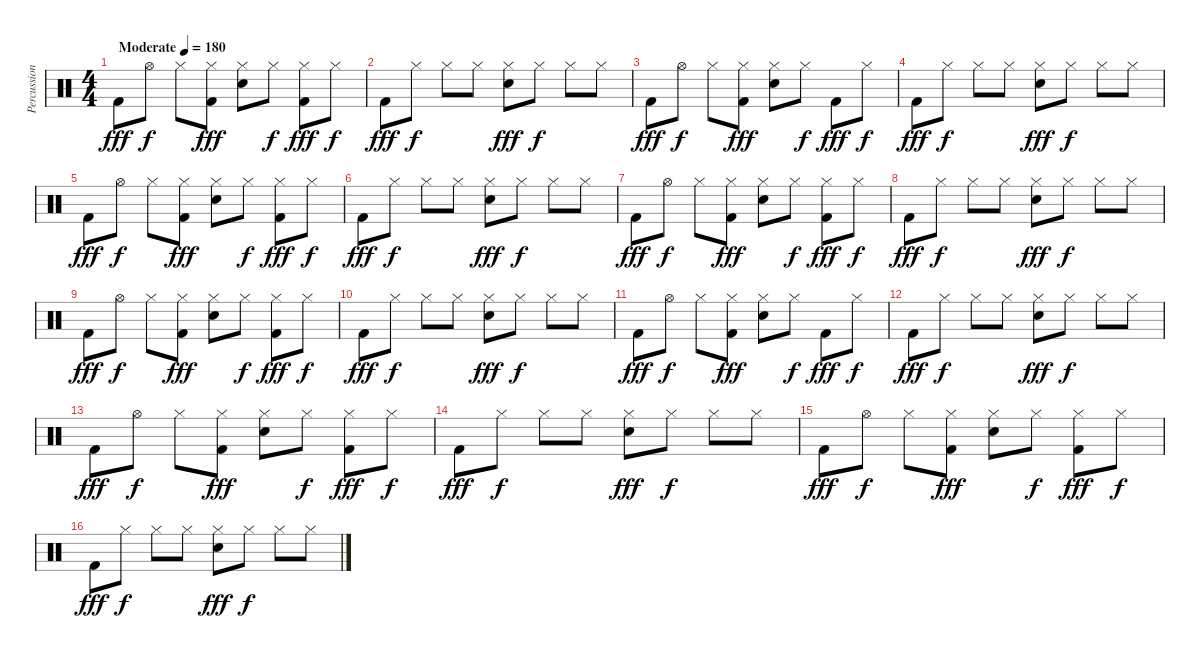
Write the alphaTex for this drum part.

\track ("Percussion" "Percussion") {instrument percussion}
\staff {score}
\articulation defaults
\ts (4 4)
\tempo (180 "Moderate")
\clef neutral
\ks c "Kick (hit) 2".8{dy fff} "Hi-Hat (open)".8{dy f} "Hi-Hat (closed)".8
("Kick (hit) 2" "Hi-Hat (closed)").8{dy fff} ("Snare (hit) 2" "Hi-Hat (closed)").8 "Hi-Hat (closed)".8{dy f} ("Kick (hit) 2" "Hi-Hat (closed)").8{dy fff} "Hi-Hat (closed)".8{dy f} |
"Kick (hit) 2".8{dy fff} "Hi-Hat (closed)".8{dy f} "Hi-Hat (closed)".8 "Hi-Hat (closed)".8 ("Snare (hit) 2" "Hi-Hat (closed)").8{dy fff} "Hi-Hat (closed)".8{dy f} "Hi-Hat (closed)".8 "Hi-Hat (closed)".8 |
"Kick (hit) 2".8{dy fff} "Hi-Hat (open)".8{dy f} "Hi-Hat (closed)".8 ("Kick (hit) 2" "Hi-Hat (closed)").8{dy fff} ("Snare (hit) 2" "Hi-Hat (closed)").8 "Hi-Hat (closed)".8{dy f} "Kick (hit) 2".8{dy fff} "Hi-Hat (closed)".8{dy f} |
"Kick (hit) 2".8{dy fff} "Hi-Hat (closed)".8{dy f} "Hi-Hat (closed)".8 "Hi-Hat (closed)".8 ("Snare (hit) 2" "Hi-Hat (closed)").8{dy fff} "Hi-Hat (closed)".8{dy f} "Hi-Hat (closed)".8 "Hi-Hat (closed)".8 |
"Kick (hit) 2".8{dy fff} "Hi-Hat (open)".8{dy f} "Hi-Hat (closed)".8 ("Kick (hit) 2" "Hi-Hat (closed)").8{dy fff} ("Snare (hit) 2" "Hi-Hat (closed)").8 "Hi-Hat (closed)".8{dy f} ("Kick (hit) 2" "Hi-Hat (closed)").8{dy fff} "Hi-Hat (closed)".8{dy f} |
"Kick (hit) 2".8{dy fff} "Hi-Hat (closed)".8{dy f} "Hi-Hat (closed)".8 "Hi-Hat (closed)".8 ("Snare (hit) 2" "Hi-Hat (closed)").8{dy fff} "Hi-Hat (closed)".8{dy f} "Hi-Hat (closed)".8 "Hi-Hat (closed)".8 |
"Kick (hit) 2".8{dy fff} "Hi-Hat (open)".8{dy f} "Hi-Hat (closed)".8 ("Kick (hit) 2" "Hi-Hat (closed)").8{dy fff} ("Snare (hit) 2" "Hi-Hat (closed)").8 "Hi-Hat (closed)".8{dy f} ("Kick (hit) 2" "Hi-Hat (closed)").8{dy fff} "Hi-Hat (closed)".8{dy f} |
"Kick (hit) 2".8{dy fff} "Hi-Hat (closed)".8{dy f} "Hi-Hat (closed)".8 "Hi-Hat (closed)".8 ("Snare (hit) 2" "Hi-Hat (closed)").8{dy fff} "Hi-Hat (closed)".8{dy f} "Hi-Hat (closed)".8 "Hi-Hat (closed)".8 |
"Kick (hit) 2".8{dy fff} "Hi-Hat (open)".8{dy f} "Hi-Hat (closed)".8 ("Kick (hit) 2" "Hi-Hat (closed)").8{dy fff} ("Snare (hit) 2" "Hi-Hat (closed)").8 "Hi-Hat (closed)".8{dy f} ("Kick (hit) 2" "Hi-Hat (closed)").8{dy fff} "Hi-Hat (closed)".8{dy f} |
"Kick (hit) 2".8{dy fff} "Hi-Hat (closed)".8{dy f} "Hi-Hat (closed)".8 "Hi-Hat (closed)".8 ("Snare (hit) 2" "Hi-Hat (closed)").8{dy fff} "Hi-Hat (closed)".8{dy f} "Hi-Hat (closed)".8 "Hi-Hat (closed)".8 |
"Kick (hit) 2".8{dy fff} "Hi-Hat (open)".8{dy f} "Hi-Hat (closed)".8 ("Kick (hit) 2" "Hi-Hat (closed)").8{dy fff} ("Snare (hit) 2" "Hi-Hat (closed)").8 "Hi-Hat (closed)".8{dy f} "Kick (hit) 2".8{dy fff} "Hi-Hat (closed)".8{dy f} |
"Kick (hit) 2".8{dy fff} "Hi-Hat (closed)".8{dy f} "Hi-Hat (closed)".8 "Hi-Hat (closed)".8 ("Snare (hit) 2" "Hi-Hat (closed)").8{dy fff} "Hi-Hat (closed)".8{dy f} "Hi-Hat (closed)".8 "Hi-Hat (closed)".8 |
"Kick (hit) 2".8{dy fff} "Hi-Hat (open)".8{dy f} "Hi-Hat (closed)".8 ("Kick (hit) 2" "Hi-Hat (closed)").8{dy fff} ("Snare (hit) 2" "Hi-Hat (closed)").8 "Hi-Hat (closed)".8{dy f} ("Kick (hit) 2" "Hi-Hat (closed)").8{dy fff} "Hi-Hat (closed)".8{dy f} |
"Kick (hit) 2".8{dy fff} "Hi-Hat (closed)".8{dy f} "Hi-Hat (closed)".8 "Hi-Hat (closed)".8 ("Snare (hit) 2" "Hi-Hat (closed)").8{dy fff} "Hi-Hat (closed)".8{dy f} "Hi-Hat (closed)".8 "Hi-Hat (closed)".8 |
"Kick (hit) 2".8{dy fff} "Hi-Hat (open)".8{dy f} "Hi-Hat (closed)".8 ("Kick (hit) 2" "Hi-Hat (closed)").8{dy fff} ("Snare (hit) 2" "Hi-Hat (closed)").8 "Hi-Hat (closed)".8{dy f} ("Kick (hit) 2" "Hi-Hat (closed)").8{dy fff} "Hi-Hat (closed)".8{dy f} |
"Kick (hit) 2".8{dy fff} "Hi-Hat (closed)".8{dy f} "Hi-Hat (closed)".8 "Hi-Hat (closed)".8 ("Snare (hit) 2" "Hi-Hat (closed)").8{dy fff} "Hi-Hat (closed)".8{dy f} "Hi-Hat (closed)".8 "Hi-Hat (closed)".8
